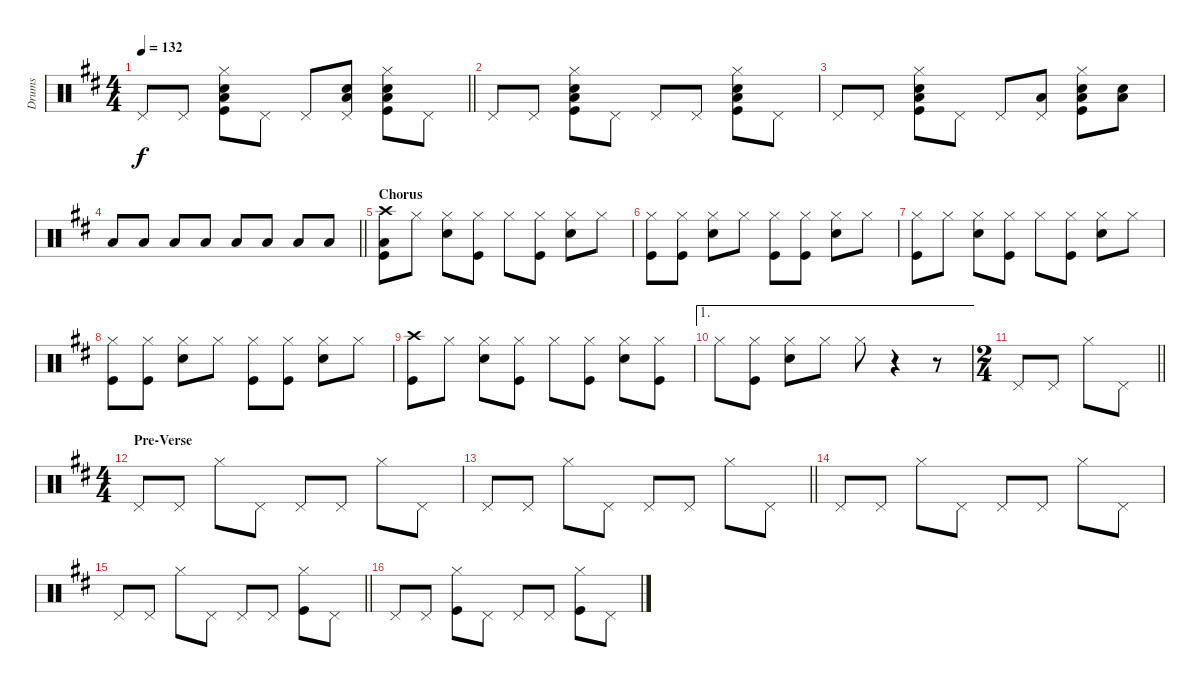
\track ("Drums" "Drums") {instrument percussion}
\staff {score}
\articulation defaults
\ts (4 4)
\tempo 132
\clef neutral
\barLineRight lightlight
\ks d "Pedal Hi-Hat (hit)".8{dy f} "Pedal Hi-Hat (hit)".8
("Hi-Hat (closed)" "Hand Clap (hit)" "Low Floor Tom (hit)" "Kick (hit)").8 "Pedal Hi-Hat (hit)".8 "Pedal Hi-Hat (hit)".8 ("Pedal Hi-Hat (hit)" "Hand Clap (hit)" "Low Tom (hit)").8 ("Hi-Hat (closed)" "Hand Clap (hit)" "Low Floor Tom (hit)" "Kick (hit)").8 "Pedal Hi-Hat (hit)".8 |
"Pedal Hi-Hat (hit)".8 "Pedal Hi-Hat (hit)".8 ("Hi-Hat (closed)" "Hand Clap (hit)" "Low Floor Tom (hit)" "Kick (hit)").8 "Pedal Hi-Hat (hit)".8 "Pedal Hi-Hat (hit)".8 "Pedal Hi-Hat (hit)".8 ("Hi-Hat (closed)" "Hand Clap (hit)" "Low Floor Tom (hit)" "Kick (hit)").8 "Pedal Hi-Hat (hit)".8 |
"Pedal Hi-Hat (hit)".8 "Pedal Hi-Hat (hit)".8 ("Hi-Hat (closed)" "Hand Clap (hit)" "Low Floor Tom (hit)" "Kick (hit)").8 "Pedal Hi-Hat (hit)".8 "Pedal Hi-Hat (hit)".8 ("Pedal Hi-Hat (hit)" "Low Tom (hit)").8 ("Hi-Hat (closed)" "Hand Clap (hit)" "Low Floor Tom (hit)" "Kick (hit)").8 ("Hand Clap (hit)" "Low Floor Tom (hit)").8 |
\barLineRight lightlight "Low Floor Tom (hit)".8 "Low Floor Tom (hit)".8 "Low Floor Tom (hit)".8 "Low Floor Tom (hit)".8 "Low Floor Tom (hit)".8 "Low Floor Tom (hit)".8 "Low Floor Tom (hit)".8 "Low Floor Tom (hit)".8
|
\section ("" "Chorus")
("Crash high (hit)" "Low Floor Tom (hit)" "Kick (hit)").8 "Hi-Hat (closed)".8 ("Hi-Hat (closed)" "Electric Snare (hit)").8 ("Hi-Hat (closed)" "Kick (hit)").8 "Hi-Hat (closed)".8 ("Hi-Hat (closed)" "Kick (hit)").8 ("Hi-Hat (closed)" "Electric Snare (hit)").8 "Hi-Hat (closed)".8 |
("Hi-Hat (closed)" "Kick (hit)").8 ("Hi-Hat (closed)" "Kick (hit)").8 ("Hi-Hat (closed)" "Electric Snare (hit)").8 "Hi-Hat (closed)".8 ("Hi-Hat (closed)" "Kick (hit)").8 ("Hi-Hat (closed)" "Kick (hit)").8 ("Hi-Hat (closed)" "Electric Snare (hit)").8 "Hi-Hat (closed)".8 |
("Hi-Hat (closed)" "Kick (hit)").8 "Hi-Hat (closed)".8 ("Hi-Hat (closed)" "Electric Snare (hit)").8 ("Hi-Hat (closed)" "Kick (hit)").8 "Hi-Hat (closed)".8 ("Hi-Hat (closed)" "Kick (hit)").8 ("Hi-Hat (closed)" "Electric Snare (hit)").8 "Hi-Hat (closed)".8 |
("Hi-Hat (closed)" "Kick (hit)").8 ("Hi-Hat (closed)" "Kick (hit)").8 ("Hi-Hat (closed)" "Electric Snare (hit)").8 "Hi-Hat (closed)".8 ("Hi-Hat (closed)" "Kick (hit)").8 ("Hi-Hat (closed)" "Kick (hit)").8 ("Hi-Hat (closed)" "Electric Snare (hit)").8 "Hi-Hat (closed)".8 |
("Crash high (hit)" "Kick (hit)").8 "Hi-Hat (closed)".8 ("Hi-Hat (closed)" "Electric Snare (hit)").8 ("Hi-Hat (closed)" "Kick (hit)").8 "Hi-Hat (closed)".8 ("Hi-Hat (closed)" "Kick (hit)").8 ("Hi-Hat (closed)" "Electric Snare (hit)").8 ("Hi-Hat (closed)" "Kick (hit)").8 |
\ae 1 "Hi-Hat (closed)".8
("Hi-Hat (closed)" "Kick (hit)").8 ("Hi-Hat (closed)" "Electric Snare (hit)").8 "Hi-Hat (closed)".8 "Hi-Hat (closed)".8 r.4 r.8 |
\ts (2 4)
\barLineRight lightlight "Pedal Hi-Hat (hit)".8 "Pedal Hi-Hat (hit)".8 "Hi-Hat (closed)".8 "Pedal Hi-Hat (hit)".8
|
\ts (4 4)
\section ("" "Pre-Verse")
"Pedal Hi-Hat (hit)".8 "Pedal Hi-Hat (hit)".8 "Hi-Hat (closed)".8 "Pedal Hi-Hat (hit)".8 "Pedal Hi-Hat (hit)".8 "Pedal Hi-Hat (hit)".8 "Hi-Hat (closed)".8 "Pedal Hi-Hat (hit)".8 |
\barLineRight lightlight "Pedal Hi-Hat (hit)".8 "Pedal Hi-Hat (hit)".8 "Hi-Hat (closed)".8 "Pedal Hi-Hat (hit)".8 "Pedal Hi-Hat (hit)".8 "Pedal Hi-Hat (hit)".8 "Hi-Hat (closed)".8 "Pedal Hi-Hat (hit)".8
|
"Pedal Hi-Hat (hit)".8 "Pedal Hi-Hat (hit)".8 "Hi-Hat (closed)".8 "Pedal Hi-Hat (hit)".8 "Pedal Hi-Hat (hit)".8 "Pedal Hi-Hat (hit)".8 "Hi-Hat (closed)".8 "Pedal Hi-Hat (hit)".8 |
\barLineRight lightlight "Pedal Hi-Hat (hit)".8 "Pedal Hi-Hat (hit)".8 "Hi-Hat (closed)".8 "Pedal Hi-Hat (hit)".8 "Pedal Hi-Hat (hit)".8 "Pedal Hi-Hat (hit)".8
("Hi-Hat (closed)" "Kick (hit)").8 "Pedal Hi-Hat (hit)".8 |
"Pedal Hi-Hat (hit)".8 "Pedal Hi-Hat (hit)".8 ("Hi-Hat (closed)" "Kick (hit)").8 "Pedal Hi-Hat (hit)".8 "Pedal Hi-Hat (hit)".8 "Pedal Hi-Hat (hit)".8 ("Hi-Hat (closed)" "Kick (hit)").8 "Pedal Hi-Hat (hit)".8
